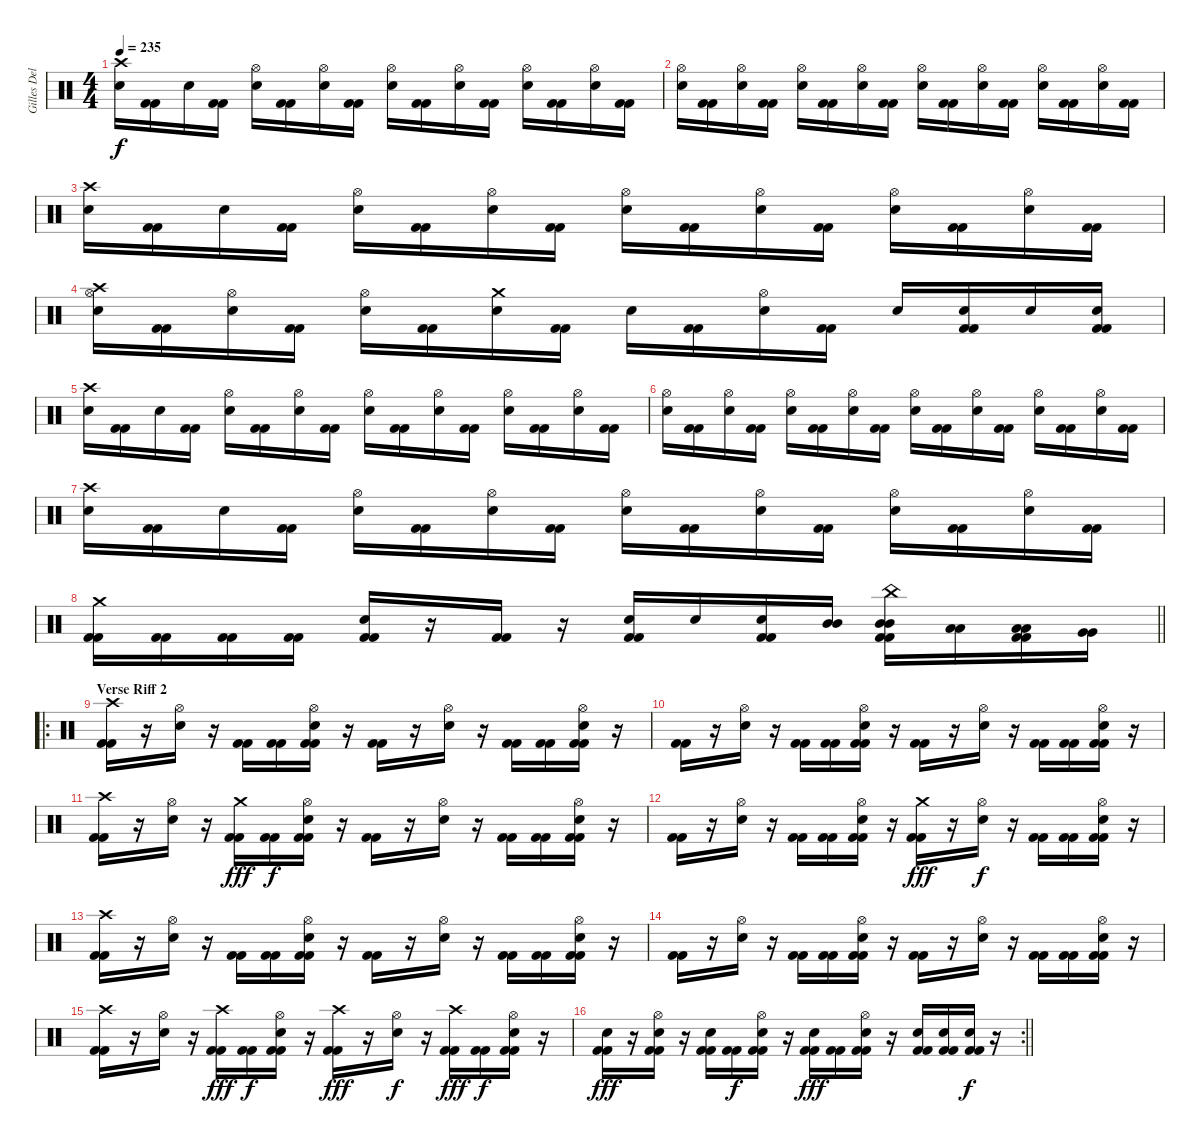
\track ("Gilles Delecroix" "Gilles Del") {instrument percussion}
\staff {score}
\articulation defaults
\ts (4 4)
\tempo 235
\clef neutral
\ks c
("Crash high (hit)" "Electric Snare (hit)").16{dy f} ("Kick (hit) 2" "Kick (hit) 2").16 "Electric Snare (hit)".16 ("Kick (hit) 2" "Kick (hit) 2").16 ("Hi-Hat (open)" "Electric Snare (hit)").16 ("Kick (hit) 2" "Kick (hit) 2").16 ("Hi-Hat (open)" "Electric Snare (hit)").16 ("Kick (hit) 2" "Kick (hit) 2").16 ("Hi-Hat (open)" "Electric Snare (hit)").16 ("Kick (hit) 2" "Kick (hit) 2").16 ("Hi-Hat (open)" "Electric Snare (hit)").16 ("Kick (hit) 2" "Kick (hit) 2").16 ("Hi-Hat (open)" "Electric Snare (hit)").16 ("Kick (hit) 2" "Kick (hit) 2").16 ("Hi-Hat (open)" "Electric Snare (hit)").16 ("Kick (hit) 2" "Kick (hit) 2").16 |
("Hi-Hat (open)" "Electric Snare (hit)").16 ("Kick (hit) 2" "Kick (hit) 2").16 ("Hi-Hat (open)" "Electric Snare (hit)").16 ("Kick (hit) 2" "Kick (hit) 2").16 ("Hi-Hat (open)" "Electric Snare (hit)").16 ("Kick (hit) 2" "Kick (hit) 2").16 ("Hi-Hat (open)" "Electric Snare (hit)").16 ("Kick (hit) 2" "Kick (hit) 2").16 ("Hi-Hat (open)" "Electric Snare (hit)").16 ("Kick (hit) 2" "Kick (hit) 2").16 ("Hi-Hat (open)" "Electric Snare (hit)").16 ("Kick (hit) 2" "Kick (hit) 2").16 ("Hi-Hat (open)" "Electric Snare (hit)").16 ("Kick (hit) 2" "Kick (hit) 2").16 ("Hi-Hat (open)" "Electric Snare (hit)").16 ("Kick (hit) 2" "Kick (hit) 2").16 |
("Crash high (hit)" "Electric Snare (hit)").16 ("Kick (hit) 2" "Kick (hit) 2").16 "Electric Snare (hit)".16 ("Kick (hit) 2" "Kick (hit) 2").16 ("Hi-Hat (open)" "Electric Snare (hit)").16 ("Kick (hit) 2" "Kick (hit) 2").16 ("Hi-Hat (open)" "Electric Snare (hit)").16 ("Kick (hit) 2" "Kick (hit) 2").16 ("Hi-Hat (open)" "Electric Snare (hit)").16 ("Kick (hit) 2" "Kick (hit) 2").16 ("Hi-Hat (open)" "Electric Snare (hit)").16 ("Kick (hit) 2" "Kick (hit) 2").16 ("Hi-Hat (open)" "Electric Snare (hit)").16 ("Kick (hit) 2" "Kick (hit) 2").16 ("Hi-Hat (open)" "Electric Snare (hit)").16 ("Kick (hit) 2" "Kick (hit) 2").16 |
("Crash high (hit)" "Hi-Hat (open)" "Electric Snare (hit)").16 ("Kick (hit) 2" "Kick (hit) 2").16 ("Hi-Hat (open)" "Electric Snare (hit)").16 ("Kick (hit) 2" "Kick (hit) 2").16 ("Hi-Hat (open)" "Electric Snare (hit)").16 ("Kick (hit) 2" "Kick (hit) 2").16 ("Crash medium (hit)" "Electric Snare (hit)").16 ("Kick (hit) 2" "Kick (hit) 2").16 "Electric Snare (hit)".16 ("Kick (hit) 2" "Kick (hit) 2").16 ("Hi-Hat (open)" "Electric Snare (hit)").16 ("Kick (hit) 2" "Kick (hit) 2").16 "Electric Snare (hit)".16 ("Electric Snare (hit)" "Kick (hit) 2" "Kick (hit) 2").16 "Electric Snare (hit)".16 ("Electric Snare (hit)" "Kick (hit) 2" "Kick (hit) 2").16 |
("Crash high (hit)" "Electric Snare (hit)").16 ("Kick (hit) 2" "Kick (hit) 2").16 "Electric Snare (hit)".16 ("Kick (hit) 2" "Kick (hit) 2").16 ("Hi-Hat (open)" "Electric Snare (hit)").16 ("Kick (hit) 2" "Kick (hit) 2").16 ("Hi-Hat (open)" "Electric Snare (hit)").16 ("Kick (hit) 2" "Kick (hit) 2").16 ("Hi-Hat (open)" "Electric Snare (hit)").16 ("Kick (hit) 2" "Kick (hit) 2").16 ("Hi-Hat (open)" "Electric Snare (hit)").16 ("Kick (hit) 2" "Kick (hit) 2").16 ("Hi-Hat (open)" "Electric Snare (hit)").16 ("Kick (hit) 2" "Kick (hit) 2").16 ("Hi-Hat (open)" "Electric Snare (hit)").16 ("Kick (hit) 2" "Kick (hit) 2").16 |
("Hi-Hat (open)" "Electric Snare (hit)").16 ("Kick (hit) 2" "Kick (hit) 2").16 ("Hi-Hat (open)" "Electric Snare (hit)").16 ("Kick (hit) 2" "Kick (hit) 2").16 ("Hi-Hat (open)" "Electric Snare (hit)").16 ("Kick (hit) 2" "Kick (hit) 2").16 ("Hi-Hat (open)" "Electric Snare (hit)").16 ("Kick (hit) 2" "Kick (hit) 2").16 ("Hi-Hat (open)" "Electric Snare (hit)").16 ("Kick (hit) 2" "Kick (hit) 2").16 ("Hi-Hat (open)" "Electric Snare (hit)").16 ("Kick (hit) 2" "Kick (hit) 2").16 ("Hi-Hat (open)" "Electric Snare (hit)").16 ("Kick (hit) 2" "Kick (hit) 2").16 ("Hi-Hat (open)" "Electric Snare (hit)").16 ("Kick (hit) 2" "Kick (hit) 2").16 |
("Crash high (hit)" "Electric Snare (hit)").16 ("Kick (hit) 2" "Kick (hit) 2").16 "Electric Snare (hit)".16 ("Kick (hit) 2" "Kick (hit) 2").16 ("Hi-Hat (open)" "Electric Snare (hit)").16 ("Kick (hit) 2" "Kick (hit) 2").16 ("Hi-Hat (open)" "Electric Snare (hit)").16 ("Kick (hit) 2" "Kick (hit) 2").16 ("Hi-Hat (open)" "Electric Snare (hit)").16 ("Kick (hit) 2" "Kick (hit) 2").16 ("Hi-Hat (open)" "Electric Snare (hit)").16 ("Kick (hit) 2" "Kick (hit) 2").16 ("Hi-Hat (open)" "Electric Snare (hit)").16 ("Kick (hit) 2" "Kick (hit) 2").16 ("Hi-Hat (open)" "Electric Snare (hit)").16 ("Kick (hit) 2" "Kick (hit) 2").16 |
\barLineRight lightlight
("Crash medium (hit)" "Kick (hit) 2" "Kick (hit) 2").16 ("Kick (hit) 2" "Kick (hit) 2").16 ("Kick (hit) 2" "Kick (hit) 2").16 ("Kick (hit) 2" "Kick (hit) 2").16 ("Electric Snare (hit)" "Kick (hit) 2" "Kick (hit) 2").16 r.16 ("Kick (hit) 2" "Kick (hit) 2").16 r.16 ("Electric Snare (hit)" "Kick (hit) 2" "Kick (hit) 2").16 "Electric Snare (hit)".16 ("Electric Snare (hit)" "Kick (hit) 2" "Kick (hit) 2").16 ("Mid Tom (hit)" "Mid Tom (hit)").16 ("China (hit)" "Mid Tom (hit)" "Mid Tom (hit)" "Kick (hit) 2" "Kick (hit) 2").16 ("Low Tom (hit)" "Low Tom (hit)").16 ("Low Tom (hit)" "Low Tom (hit)" "Kick (hit) 2" "Kick (hit) 2").16 ("Very Low Tom (hit)" "Very Low Tom (hit)").16 |
\ro
\section ("" "Verse Riff 2")
("Crash high (hit)" "Kick (hit) 2" "Kick (hit) 2").16 r.16 ("Hi-Hat (open)" "Electric Snare (hit)").16 r.16 ("Kick (hit) 2" "Kick (hit) 2").16 ("Kick (hit) 2" "Kick (hit) 2").16 ("Hi-Hat (open)" "Electric Snare (hit)" "Kick (hit) 2" "Kick (hit) 2").16 r.16 ("Kick (hit) 2" "Kick (hit) 2").16 r.16 ("Hi-Hat (open)" "Electric Snare (hit)").16 r.16 ("Kick (hit) 2" "Kick (hit) 2").16 ("Kick (hit) 2" "Kick (hit) 2").16 ("Hi-Hat (open)" "Electric Snare (hit)" "Kick (hit) 2" "Kick (hit) 2").16 r.16 |
("Kick (hit) 2" "Kick (hit) 2").16 r.16 ("Hi-Hat (open)" "Electric Snare (hit)").16 r.16 ("Kick (hit) 2" "Kick (hit) 2").16 ("Kick (hit) 2" "Kick (hit) 2").16 ("Hi-Hat (open)" "Electric Snare (hit)" "Kick (hit) 2" "Kick (hit) 2").16 r.16 ("Kick (hit) 2" "Kick (hit) 2").16 r.16 ("Hi-Hat (open)" "Electric Snare (hit)").16 r.16 ("Kick (hit) 2" "Kick (hit) 2").16 ("Kick (hit) 2" "Kick (hit) 2").16 ("Hi-Hat (open)" "Electric Snare (hit)" "Kick (hit) 2" "Kick (hit) 2").16 r.16 |
("Crash high (hit)" "Kick (hit) 2" "Kick (hit) 2").16 r.16 ("Hi-Hat (open)" "Electric Snare (hit)").16 r.16 ("Crash medium (hit)" "Kick (hit) 2" "Kick (hit) 2").16{dy fff} ("Kick (hit) 2" "Kick (hit) 2").16{dy f} ("Hi-Hat (open)" "Electric Snare (hit)" "Kick (hit) 2" "Kick (hit) 2").16 r.16 ("Kick (hit) 2" "Kick (hit) 2").16 r.16 ("Hi-Hat (open)" "Electric Snare (hit)").16 r.16 ("Kick (hit) 2" "Kick (hit) 2").16 ("Kick (hit) 2" "Kick (hit) 2").16 ("Hi-Hat (open)" "Electric Snare (hit)" "Kick (hit) 2" "Kick (hit) 2").16 r.16 |
("Kick (hit) 2" "Kick (hit) 2").16 r.16 ("Hi-Hat (open)" "Electric Snare (hit)").16 r.16 ("Kick (hit) 2" "Kick (hit) 2").16 ("Kick (hit) 2" "Kick (hit) 2").16 ("Hi-Hat (open)" "Electric Snare (hit)" "Kick (hit) 2" "Kick (hit) 2").16 r.16 ("Crash medium (hit)" "Kick (hit) 2" "Kick (hit) 2").16{dy fff} r.16 ("Hi-Hat (open)" "Electric Snare (hit)").16{dy f} r.16 ("Kick (hit) 2" "Kick (hit) 2").16 ("Kick (hit) 2" "Kick (hit) 2").16 ("Hi-Hat (open)" "Electric Snare (hit)" "Kick (hit) 2" "Kick (hit) 2").16 r.16 |
("Crash high (hit)" "Kick (hit) 2" "Kick (hit) 2").16 r.16 ("Hi-Hat (open)" "Electric Snare (hit)").16 r.16 ("Kick (hit) 2" "Kick (hit) 2").16 ("Kick (hit) 2" "Kick (hit) 2").16 ("Hi-Hat (open)" "Electric Snare (hit)" "Kick (hit) 2" "Kick (hit) 2").16 r.16 ("Kick (hit) 2" "Kick (hit) 2").16 r.16 ("Hi-Hat (open)" "Electric Snare (hit)").16 r.16 ("Kick (hit) 2" "Kick (hit) 2").16 ("Kick (hit) 2" "Kick (hit) 2").16 ("Hi-Hat (open)" "Electric Snare (hit)" "Kick (hit) 2" "Kick (hit) 2").16 r.16 |
("Kick (hit) 2" "Kick (hit) 2").16 r.16 ("Hi-Hat (open)" "Electric Snare (hit)").16 r.16 ("Kick (hit) 2" "Kick (hit) 2").16 ("Kick (hit) 2" "Kick (hit) 2").16 ("Hi-Hat (open)" "Electric Snare (hit)" "Kick (hit) 2" "Kick (hit) 2").16 r.16 ("Kick (hit) 2" "Kick (hit) 2").16 r.16 ("Hi-Hat (open)" "Electric Snare (hit)").16 r.16 ("Kick (hit) 2" "Kick (hit) 2").16 ("Kick (hit) 2" "Kick (hit) 2").16 ("Hi-Hat (open)" "Electric Snare (hit)" "Kick (hit) 2" "Kick (hit) 2").16 r.16 |
("Crash high (hit)" "Kick (hit) 2" "Kick (hit) 2").16 r.16 ("Hi-Hat (open)" "Electric Snare (hit)").16 r.16 ("Crash high (hit)" "Kick (hit) 2" "Kick (hit) 2").16{dy fff} ("Kick (hit) 2" "Kick (hit) 2").16{dy f} ("Hi-Hat (open)" "Electric Snare (hit)" "Kick (hit) 2" "Kick (hit) 2").16 r.16 ("Crash high (hit)" "Kick (hit) 2" "Kick (hit) 2").16{dy fff} r.16 ("Hi-Hat (open)" "Electric Snare (hit)").16{dy f} r.16 ("Crash high (hit)" "Kick (hit) 2" "Kick (hit) 2").16{dy fff} ("Kick (hit) 2" "Kick (hit) 2").16{dy f} ("Hi-Hat (open)" "Electric Snare (hit)" "Kick (hit) 2" "Kick (hit) 2").16 r.16 |
\rc 2
\barLineRight lightlight
("Electric Snare (hit)" "Kick (hit) 2" "Kick (hit) 2").16{dy fff} r.16 ("Hi-Hat (open)" "Electric Snare (hit)" "Kick (hit) 2" "Kick (hit) 2").16 r.16 ("Electric Snare (hit)" "Kick (hit) 2" "Kick (hit) 2").16 ("Kick (hit) 2" "Kick (hit) 2").16{dy f} ("Hi-Hat (open)" "Electric Snare (hit)" "Kick (hit) 2" "Kick (hit) 2").16 r.16 ("Electric Snare (hit)" "Kick (hit) 2" "Kick (hit) 2").16{dy fff} ("Kick (hit) 2" "Kick (hit) 2").16 ("Hi-Hat (open)" "Electric Snare (hit)" "Kick (hit) 2" "Kick (hit) 2").16 r.16 ("Electric Snare (hit)" "Kick (hit) 2" "Kick (hit) 2").16 ("Electric Snare (hit)" "Kick (hit) 2" "Kick (hit) 2").16 ("Electric Snare (hit)" "Kick (hit) 2" "Kick (hit) 2").16{dy f} r.16
